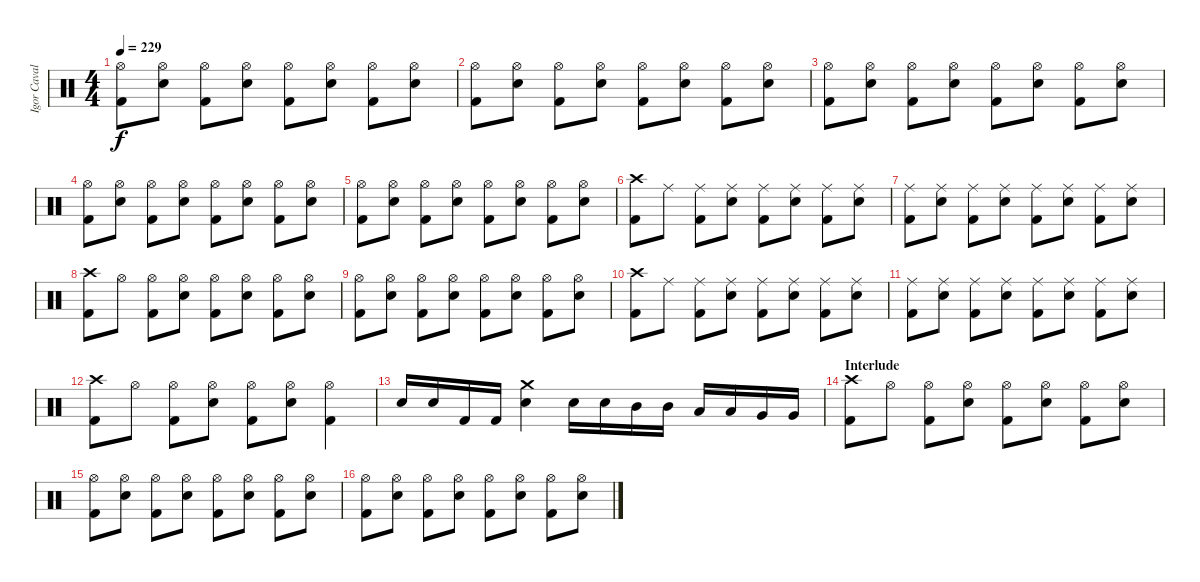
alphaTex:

\track ("Igor Cavalera" "Igor Caval") {instrument percussion}
\staff {score}
\articulation defaults
\ts (4 4)
\tempo 229
\clef neutral
\ks c
("Kick (hit) 2" "Hi-Hat (open)").8{dy f} ("Snare (hit) 2" "Hi-Hat (open)").8 ("Kick (hit) 2" "Hi-Hat (open)").8 ("Snare (hit) 2" "Hi-Hat (open)").8 ("Kick (hit) 2" "Hi-Hat (open)").8 ("Snare (hit) 2" "Hi-Hat (open)").8 ("Kick (hit) 2" "Hi-Hat (open)").8 ("Snare (hit) 2" "Hi-Hat (open)").8 |
("Kick (hit) 2" "Hi-Hat (open)").8 ("Snare (hit) 2" "Hi-Hat (open)").8 ("Kick (hit) 2" "Hi-Hat (open)").8 ("Snare (hit) 2" "Hi-Hat (open)").8 ("Kick (hit) 2" "Hi-Hat (open)").8 ("Snare (hit) 2" "Hi-Hat (open)").8 ("Kick (hit) 2" "Hi-Hat (open)").8 ("Snare (hit) 2" "Hi-Hat (open)").8 |
("Kick (hit) 2" "Hi-Hat (open)").8 ("Snare (hit) 2" "Hi-Hat (open)").8 ("Kick (hit) 2" "Hi-Hat (open)").8 ("Snare (hit) 2" "Hi-Hat (open)").8 ("Kick (hit) 2" "Hi-Hat (open)").8 ("Snare (hit) 2" "Hi-Hat (open)").8 ("Kick (hit) 2" "Hi-Hat (open)").8 ("Snare (hit) 2" "Hi-Hat (open)").8 |
("Kick (hit) 2" "Hi-Hat (open)").8 ("Snare (hit) 2" "Hi-Hat (open)").8 ("Kick (hit) 2" "Hi-Hat (open)").8 ("Snare (hit) 2" "Hi-Hat (open)").8 ("Kick (hit) 2" "Hi-Hat (open)").8 ("Snare (hit) 2" "Hi-Hat (open)").8 ("Kick (hit) 2" "Hi-Hat (open)").8 ("Snare (hit) 2" "Hi-Hat (open)").8 |
("Kick (hit) 2" "Hi-Hat (open)").8 ("Snare (hit) 2" "Hi-Hat (open)").8 ("Kick (hit) 2" "Hi-Hat (open)").8 ("Snare (hit) 2" "Hi-Hat (open)").8 ("Kick (hit) 2" "Hi-Hat (open)").8 ("Snare (hit) 2" "Hi-Hat (open)").8 ("Kick (hit) 2" "Hi-Hat (open)").8 ("Snare (hit) 2" "Hi-Hat (open)").8 |
("Kick (hit) 2" "Crash high (hit)").8 "Ride (middle)".8 ("Kick (hit) 2" "Ride (middle)").8 ("Snare (hit) 2" "Ride (middle)").8 ("Kick (hit) 2" "Ride (middle)").8 ("Snare (hit) 2" "Ride (middle)").8 ("Kick (hit) 2" "Ride (middle)").8 ("Snare (hit) 2" "Ride (middle)").8 |
("Kick (hit) 2" "Ride (middle)").8 ("Snare (hit) 2" "Ride (middle)").8 ("Kick (hit) 2" "Ride (middle)").8 ("Snare (hit) 2" "Ride (middle)").8 ("Kick (hit) 2" "Ride (middle)").8 ("Snare (hit) 2" "Ride (middle)").8 ("Kick (hit) 2" "Ride (middle)").8 ("Snare (hit) 2" "Ride (middle)").8 |
("Kick (hit) 2" "Crash high (hit)").8 "Hi-Hat (open)".8 ("Kick (hit) 2" "Hi-Hat (open)").8 ("Snare (hit) 2" "Hi-Hat (open)").8 ("Kick (hit) 2" "Hi-Hat (open)").8 ("Snare (hit) 2" "Hi-Hat (open)").8 ("Kick (hit) 2" "Hi-Hat (open)").8 ("Snare (hit) 2" "Hi-Hat (open)").8 |
("Kick (hit) 2" "Hi-Hat (open)").8 ("Snare (hit) 2" "Hi-Hat (open)").8 ("Kick (hit) 2" "Hi-Hat (open)").8 ("Snare (hit) 2" "Hi-Hat (open)").8 ("Kick (hit) 2" "Hi-Hat (open)").8 ("Snare (hit) 2" "Hi-Hat (open)").8 ("Kick (hit) 2" "Hi-Hat (open)").8 ("Snare (hit) 2" "Hi-Hat (open)").8 |
("Kick (hit) 2" "Crash high (hit)").8 "Ride (middle)".8 ("Kick (hit) 2" "Ride (middle)").8 ("Snare (hit) 2" "Ride (middle)").8 ("Kick (hit) 2" "Ride (middle)").8 ("Snare (hit) 2" "Ride (middle)").8 ("Kick (hit) 2" "Ride (middle)").8 ("Snare (hit) 2" "Ride (middle)").8 |
("Kick (hit) 2" "Ride (middle)").8 ("Snare (hit) 2" "Ride (middle)").8 ("Kick (hit) 2" "Ride (middle)").8 ("Snare (hit) 2" "Ride (middle)").8 ("Kick (hit) 2" "Ride (middle)").8 ("Snare (hit) 2" "Ride (middle)").8 ("Kick (hit) 2" "Ride (middle)").8 ("Snare (hit) 2" "Ride (middle)").8 |
("Kick (hit) 2" "Crash high (hit)").8 "Hi-Hat (open)".8 ("Kick (hit) 2" "Hi-Hat (open)").8 ("Snare (hit) 2" "Hi-Hat (open)").8 ("Kick (hit) 2" "Hi-Hat (open)").8 ("Snare (hit) 2" "Hi-Hat (open)").8 ("Kick (hit) 2" "Hi-Hat (open)").4 |
"Snare (hit) 2".16 "Snare (hit) 2".16 "Kick (hit) 2".16 "Kick (hit) 2".16 ("Snare (hit) 2" "Crash medium (hit)").4 "Snare (hit) 2".16 "Snare (hit) 2".16 "Mid Tom (hit)".16 "Mid Tom (hit)".16 "Low Tom (hit)".16 "Low Tom (hit)".16 "Very Low Tom (hit)".16 "Very Low Tom (hit)".16 |
\section ("" "Interlude")
("Kick (hit) 2" "Crash high (hit)").8 "Hi-Hat (open)".8 ("Kick (hit) 2" "Hi-Hat (open)").8 ("Snare (hit) 2" "Hi-Hat (open)").8 ("Kick (hit) 2" "Hi-Hat (open)").8 ("Snare (hit) 2" "Hi-Hat (open)").8 ("Kick (hit) 2" "Hi-Hat (open)").8 ("Snare (hit) 2" "Hi-Hat (open)").8 |
("Kick (hit) 2" "Hi-Hat (open)").8 ("Snare (hit) 2" "Hi-Hat (open)").8 ("Kick (hit) 2" "Hi-Hat (open)").8 ("Snare (hit) 2" "Hi-Hat (open)").8 ("Kick (hit) 2" "Hi-Hat (open)").8 ("Snare (hit) 2" "Hi-Hat (open)").8 ("Kick (hit) 2" "Hi-Hat (open)").8 ("Snare (hit) 2" "Hi-Hat (open)").8 |
("Kick (hit) 2" "Hi-Hat (open)").8 ("Snare (hit) 2" "Hi-Hat (open)").8 ("Kick (hit) 2" "Hi-Hat (open)").8 ("Snare (hit) 2" "Hi-Hat (open)").8 ("Kick (hit) 2" "Hi-Hat (open)").8 ("Snare (hit) 2" "Hi-Hat (open)").8 ("Kick (hit) 2" "Hi-Hat (open)").8 ("Snare (hit) 2" "Hi-Hat (open)").8
